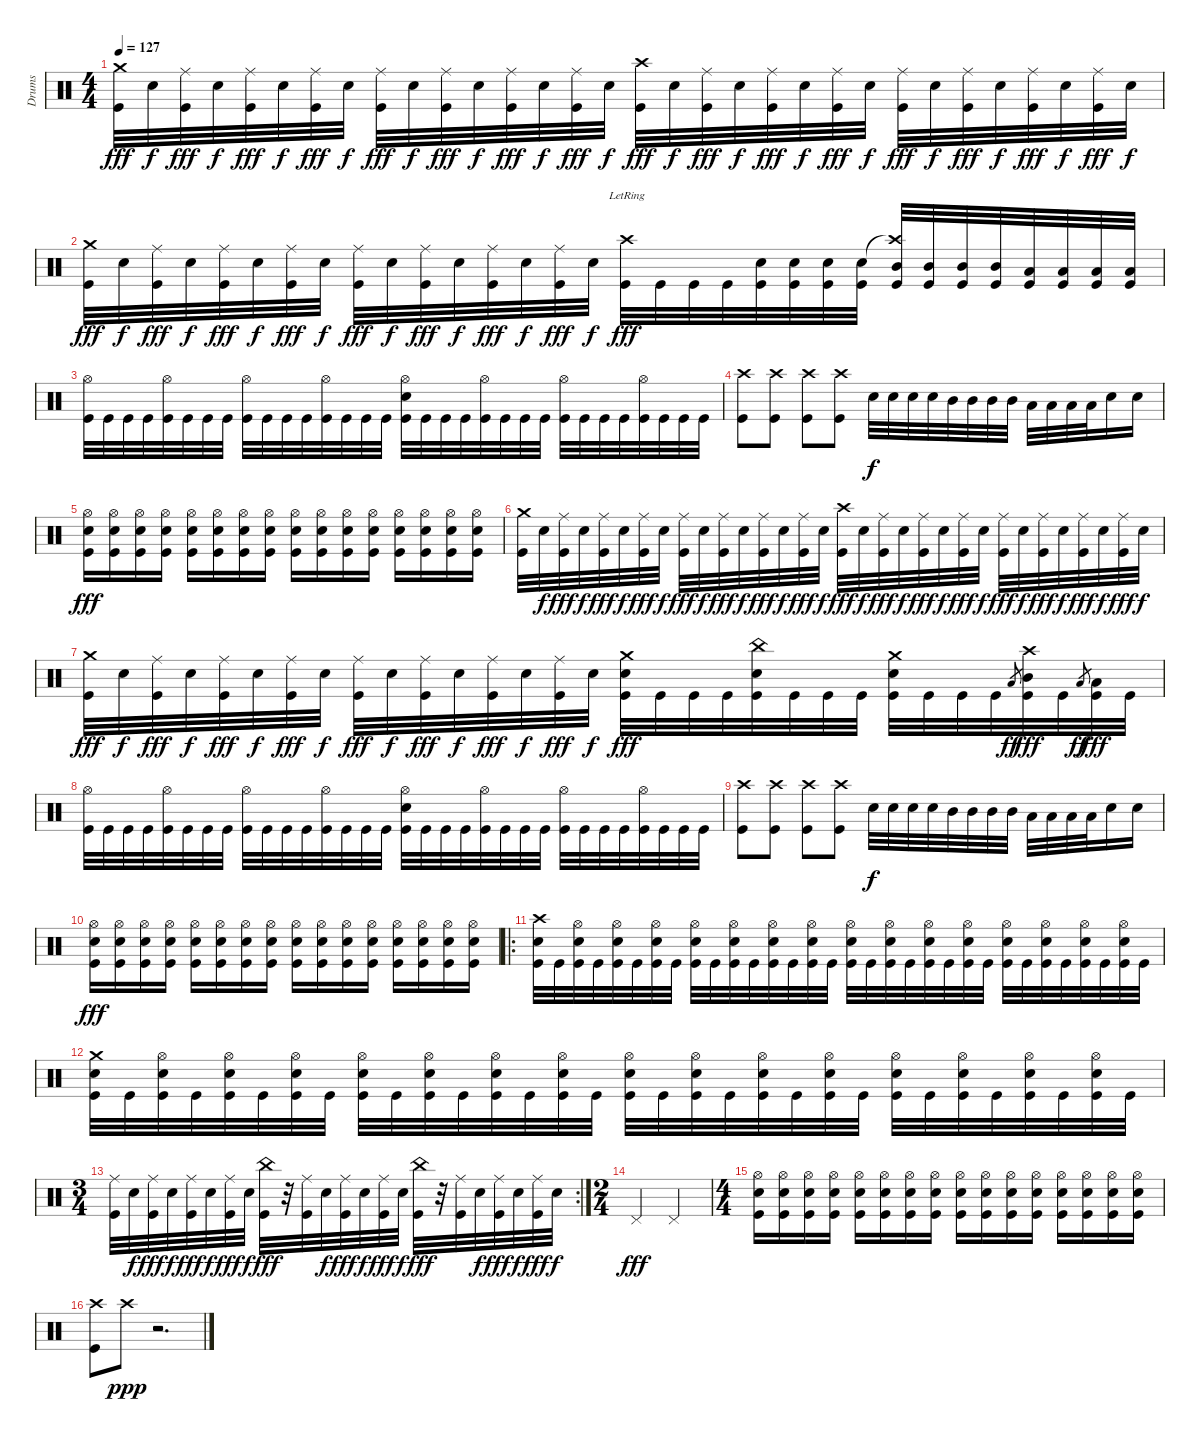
\track ("Drums" "Drums") {instrument percussion}
\staff {score}
\articulation defaults
\ts (4 4)
\tempo 127
\clef neutral
\ks c
("Crash medium (hit)" "Kick (hit)").32{dy fff} "Electric Snare (hit)".32{dy f} ("Ride (middle)" "Kick (hit)").32{dy fff} "Electric Snare (hit)".32{dy f} ("Ride (middle)" "Kick (hit)").32{dy fff} "Electric Snare (hit)".32{dy f} ("Ride (middle)" "Kick (hit)").32{dy fff} "Electric Snare (hit)".32{dy f} ("Ride (middle)" "Kick (hit)").32{dy fff} "Electric Snare (hit)".32{dy f} ("Ride (middle)" "Kick (hit)").32{dy fff} "Electric Snare (hit)".32{dy f} ("Ride (middle)" "Kick (hit)").32{dy fff} "Electric Snare (hit)".32{dy f} ("Ride (middle)" "Kick (hit)").32{dy fff} "Electric Snare (hit)".32{dy f} ("Crash high (hit)" "Kick (hit)").32{dy fff} "Electric Snare (hit)".32{dy f} ("Ride (middle)" "Kick (hit)").32{dy fff} "Electric Snare (hit)".32{dy f} ("Ride (middle)" "Kick (hit)").32{dy fff} "Electric Snare (hit)".32{dy f} ("Ride (middle)" "Kick (hit)").32{dy fff} "Electric Snare (hit)".32{dy f} ("Ride (middle)" "Kick (hit)").32{dy fff} "Electric Snare (hit)".32{dy f} ("Ride (middle)" "Kick (hit)").32{dy fff} "Electric Snare (hit)".32{dy f} ("Ride (middle)" "Kick (hit)").32{dy fff} "Electric Snare (hit)".32{dy f} ("Ride (middle)" "Kick (hit)").32{dy fff} "Electric Snare (hit)".32{dy f} |
("Crash medium (hit)" "Kick (hit)").32{dy fff} "Electric Snare (hit)".32{dy f} ("Ride (middle)" "Kick (hit)").32{dy fff} "Electric Snare (hit)".32{dy f} ("Ride (middle)" "Kick (hit)").32{dy fff} "Electric Snare (hit)".32{dy f} ("Ride (middle)" "Kick (hit)").32{dy fff} "Electric Snare (hit)".32{dy f} ("Ride (middle)" "Kick (hit)").32{dy fff} "Electric Snare (hit)".32{dy f} ("Ride (middle)" "Kick (hit)").32{dy fff} "Electric Snare (hit)".32{dy f} ("Ride (middle)" "Kick (hit)").32{dy fff} "Electric Snare (hit)".32{dy f} ("Ride (middle)" "Kick (hit)").32{dy fff} "Electric Snare (hit)".32{dy f} ("Crash high (hit)"{lr} "Kick (hit)").32{dy fff} "Kick (hit)".32 "Kick (hit)".32 "Kick (hit)".32 ("Electric Snare (hit)" "Kick (hit)").32 ("Electric Snare (hit)" "Kick (hit)").32 ("Electric Snare (hit)" "Kick (hit)").32 ("Electric Snare (hit)" "Kick (hit)").32 ("Crash high (hit)"{t} "Mid Tom (hit)" "Kick (hit)").32 ("Mid Tom (hit)" "Kick (hit)").32 ("Mid Tom (hit)" "Kick (hit)").32 ("Mid Tom (hit)" "Kick (hit)").32 ("Low Tom (hit)" "Kick (hit)").32 ("Low Tom (hit)" "Kick (hit)").32 ("Low Tom (hit)" "Kick (hit)").32 ("Low Tom (hit)" "Kick (hit)").32 |
("Hi-Hat (open)" "Kick (hit)").32 "Kick (hit)".32 "Kick (hit)".32 "Kick (hit)".32 ("Hi-Hat (open)" "Kick (hit)").32 "Kick (hit)".32 "Kick (hit)".32 "Kick (hit)".32 ("Hi-Hat (open)" "Kick (hit)").32 "Kick (hit)".32 "Kick (hit)".32 "Kick (hit)".32 ("Hi-Hat (open)" "Kick (hit)").32 "Kick (hit)".32 "Kick (hit)".32 "Kick (hit)".32 ("Hi-Hat (open)" "Electric Snare (hit)" "Kick (hit)").32 "Kick (hit)".32 "Kick (hit)".32 "Kick (hit)".32 ("Hi-Hat (open)" "Kick (hit)").32 "Kick (hit)".32 "Kick (hit)".32 "Kick (hit)".32 ("Hi-Hat (open)" "Kick (hit)").32 "Kick (hit)".32 "Kick (hit)".32 "Kick (hit)".32 ("Hi-Hat (open)" "Kick (hit)").32 "Kick (hit)".32 "Kick (hit)".32 "Kick (hit)".32 |
("Crash high (hit)" "Kick (hit)").8 ("Crash high (hit)" "Kick (hit)").8 ("Crash high (hit)" "Kick (hit)").8 ("Crash high (hit)" "Kick (hit)").8 "Electric Snare (hit)".32{dy f} "Electric Snare (hit)".32 "Electric Snare (hit)".32 "Electric Snare (hit)".32 "Mid Tom (hit)".32 "Mid Tom (hit)".32 "Mid Tom (hit)".32 "Mid Tom (hit)".32 "Low Tom (hit)".32 "Low Tom (hit)".32 "Low Tom (hit)".32 "Low Tom (hit)".32 "Electric Snare (hit)".16 "Electric Snare (hit)".16 |
("Hi-Hat (open)" "Electric Snare (hit)" "Kick (hit)").16{dy fff} ("Hi-Hat (open)" "Electric Snare (hit)" "Kick (hit)").16 ("Hi-Hat (open)" "Electric Snare (hit)" "Kick (hit)").16 ("Hi-Hat (open)" "Electric Snare (hit)" "Kick (hit)").16 ("Hi-Hat (open)" "Electric Snare (hit)" "Kick (hit)").16 ("Hi-Hat (open)" "Electric Snare (hit)" "Kick (hit)").16 ("Hi-Hat (open)" "Electric Snare (hit)" "Kick (hit)").16 ("Hi-Hat (open)" "Electric Snare (hit)" "Kick (hit)").16 ("Hi-Hat (open)" "Electric Snare (hit)" "Kick (hit)").16 ("Hi-Hat (open)" "Electric Snare (hit)" "Kick (hit)").16 ("Hi-Hat (open)" "Electric Snare (hit)" "Kick (hit)").16 ("Hi-Hat (open)" "Electric Snare (hit)" "Kick (hit)").16 ("Hi-Hat (open)" "Electric Snare (hit)" "Kick (hit)").16 ("Hi-Hat (open)" "Electric Snare (hit)" "Kick (hit)").16 ("Hi-Hat (open)" "Electric Snare (hit)" "Kick (hit)").16 ("Hi-Hat (open)" "Electric Snare (hit)" "Kick (hit)").16 |
("Crash medium (hit)" "Kick (hit)").32 "Electric Snare (hit)".32{dy f} ("Ride (middle)" "Kick (hit)").32{dy fff} "Electric Snare (hit)".32{dy f} ("Ride (middle)" "Kick (hit)").32{dy fff} "Electric Snare (hit)".32{dy f} ("Ride (middle)" "Kick (hit)").32{dy fff} "Electric Snare (hit)".32{dy f} ("Ride (middle)" "Kick (hit)").32{dy fff} "Electric Snare (hit)".32{dy f} ("Ride (middle)" "Kick (hit)").32{dy fff} "Electric Snare (hit)".32{dy f} ("Ride (middle)" "Kick (hit)").32{dy fff} "Electric Snare (hit)".32{dy f} ("Ride (middle)" "Kick (hit)").32{dy fff} "Electric Snare (hit)".32{dy f} ("Crash high (hit)" "Kick (hit)").32{dy fff} "Electric Snare (hit)".32{dy f} ("Ride (middle)" "Kick (hit)").32{dy fff} "Electric Snare (hit)".32{dy f} ("Ride (middle)" "Kick (hit)").32{dy fff} "Electric Snare (hit)".32{dy f} ("Ride (middle)" "Kick (hit)").32{dy fff} "Electric Snare (hit)".32{dy f} ("Ride (middle)" "Kick (hit)").32{dy fff} "Electric Snare (hit)".32{dy f} ("Ride (middle)" "Kick (hit)").32{dy fff} "Electric Snare (hit)".32{dy f} ("Ride (middle)" "Kick (hit)").32{dy fff} "Electric Snare (hit)".32{dy f} ("Ride (middle)" "Kick (hit)").32{dy fff} "Electric Snare (hit)".32{dy f} |
("Crash medium (hit)" "Kick (hit)").32{dy fff} "Electric Snare (hit)".32{dy f} ("Ride (middle)" "Kick (hit)").32{dy fff} "Electric Snare (hit)".32{dy f} ("Ride (middle)" "Kick (hit)").32{dy fff} "Electric Snare (hit)".32{dy f} ("Ride (middle)" "Kick (hit)").32{dy fff} "Electric Snare (hit)".32{dy f} ("Ride (middle)" "Kick (hit)").32{dy fff} "Electric Snare (hit)".32{dy f} ("Ride (middle)" "Kick (hit)").32{dy fff} "Electric Snare (hit)".32{dy f} ("Ride (middle)" "Kick (hit)").32{dy fff} "Electric Snare (hit)".32{dy f} ("Ride (middle)" "Kick (hit)").32{dy fff} "Electric Snare (hit)".32{dy f} ("Crash medium (hit)" "Electric Snare (hit)" "Kick (hit)").32{dy fff} "Kick (hit)".32 "Kick (hit)".32 "Kick (hit)".32 ("China (hit)" "Electric Snare (hit)" "Kick (hit)").32 "Kick (hit)".32 "Kick (hit)".32 "Kick (hit)".32 ("Crash medium (hit)" "Electric Snare (hit)" "Kick (hit)").32 "Kick (hit)".32 "Kick (hit)".32 "Kick (hit)".32 "Low Tom (hit)".8{gr dy ff} ("Crash high (hit)" "Mid Tom (hit)" "Kick (hit)").32{dy fff} "Kick (hit)".32 "Low Tom (hit)".8{gr dy ff} ("Low Tom (hit)" "Kick (hit)").32{dy fff} "Kick (hit)".32 |
("Hi-Hat (open)" "Kick (hit)").32 "Kick (hit)".32 "Kick (hit)".32 "Kick (hit)".32 ("Hi-Hat (open)" "Kick (hit)").32 "Kick (hit)".32 "Kick (hit)".32 "Kick (hit)".32 ("Hi-Hat (open)" "Kick (hit)").32 "Kick (hit)".32 "Kick (hit)".32 "Kick (hit)".32 ("Hi-Hat (open)" "Kick (hit)").32 "Kick (hit)".32 "Kick (hit)".32 "Kick (hit)".32 ("Hi-Hat (open)" "Electric Snare (hit)" "Kick (hit)").32 "Kick (hit)".32 "Kick (hit)".32 "Kick (hit)".32 ("Hi-Hat (open)" "Kick (hit)").32 "Kick (hit)".32 "Kick (hit)".32 "Kick (hit)".32 ("Hi-Hat (open)" "Kick (hit)").32 "Kick (hit)".32 "Kick (hit)".32 "Kick (hit)".32 ("Hi-Hat (open)" "Kick (hit)").32 "Kick (hit)".32 "Kick (hit)".32 "Kick (hit)".32 |
("Crash high (hit)" "Kick (hit)").8 ("Crash high (hit)" "Kick (hit)").8 ("Crash high (hit)" "Kick (hit)").8 ("Crash high (hit)" "Kick (hit)").8 "Electric Snare (hit)".32{dy f} "Electric Snare (hit)".32 "Electric Snare (hit)".32 "Electric Snare (hit)".32 "Mid Tom (hit)".32 "Mid Tom (hit)".32 "Mid Tom (hit)".32 "Mid Tom (hit)".32 "Low Tom (hit)".32 "Low Tom (hit)".32 "Low Tom (hit)".32 "Low Tom (hit)".32 "Electric Snare (hit)".16 "Electric Snare (hit)".16 |
("Hi-Hat (open)" "Electric Snare (hit)" "Kick (hit)").16{dy fff} ("Hi-Hat (open)" "Electric Snare (hit)" "Kick (hit)").16 ("Hi-Hat (open)" "Electric Snare (hit)" "Kick (hit)").16 ("Hi-Hat (open)" "Electric Snare (hit)" "Kick (hit)").16 ("Hi-Hat (open)" "Electric Snare (hit)" "Kick (hit)").16 ("Hi-Hat (open)" "Electric Snare (hit)" "Kick (hit)").16 ("Hi-Hat (open)" "Electric Snare (hit)" "Kick (hit)").16 ("Hi-Hat (open)" "Electric Snare (hit)" "Kick (hit)").16 ("Hi-Hat (open)" "Electric Snare (hit)" "Kick (hit)").16 ("Hi-Hat (open)" "Electric Snare (hit)" "Kick (hit)").16 ("Hi-Hat (open)" "Electric Snare (hit)" "Kick (hit)").16 ("Hi-Hat (open)" "Electric Snare (hit)" "Kick (hit)").16 ("Hi-Hat (open)" "Electric Snare (hit)" "Kick (hit)").16 ("Hi-Hat (open)" "Electric Snare (hit)" "Kick (hit)").16 ("Hi-Hat (open)" "Electric Snare (hit)" "Kick (hit)").16 ("Hi-Hat (open)" "Electric Snare (hit)" "Kick (hit)").16 |
\ro
("Crash high (hit)" "Electric Snare (hit)" "Kick (hit)").32 "Kick (hit)".32 ("Hi-Hat (open)" "Electric Snare (hit)" "Kick (hit)").32 "Kick (hit)".32 ("Hi-Hat (open)" "Electric Snare (hit)" "Kick (hit)").32 "Kick (hit)".32 ("Hi-Hat (open)" "Electric Snare (hit)" "Kick (hit)").32 "Kick (hit)".32 ("Hi-Hat (open)" "Electric Snare (hit)" "Kick (hit)").32 "Kick (hit)".32 ("Hi-Hat (open)" "Electric Snare (hit)" "Kick (hit)").32 "Kick (hit)".32 ("Hi-Hat (open)" "Electric Snare (hit)" "Kick (hit)").32 "Kick (hit)".32 ("Hi-Hat (open)" "Electric Snare (hit)" "Kick (hit)").32 "Kick (hit)".32 ("Hi-Hat (open)" "Electric Snare (hit)" "Kick (hit)").32 "Kick (hit)".32 ("Hi-Hat (open)" "Electric Snare (hit)" "Kick (hit)").32 "Kick (hit)".32 ("Hi-Hat (open)" "Electric Snare (hit)" "Kick (hit)").32 "Kick (hit)".32 ("Hi-Hat (open)" "Electric Snare (hit)" "Kick (hit)").32 "Kick (hit)".32 ("Hi-Hat (open)" "Electric Snare (hit)" "Kick (hit)").32 "Kick (hit)".32 ("Hi-Hat (open)" "Electric Snare (hit)" "Kick (hit)").32 "Kick (hit)".32 ("Hi-Hat (open)" "Electric Snare (hit)" "Kick (hit)").32 "Kick (hit)".32 ("Hi-Hat (open)" "Electric Snare (hit)" "Kick (hit)").32 "Kick (hit)".32 |
("Crash medium (hit)" "Electric Snare (hit)" "Kick (hit)").32 "Kick (hit)".32 ("Hi-Hat (open)" "Electric Snare (hit)" "Kick (hit)").32 "Kick (hit)".32 ("Hi-Hat (open)" "Electric Snare (hit)" "Kick (hit)").32 "Kick (hit)".32 ("Hi-Hat (open)" "Electric Snare (hit)" "Kick (hit)").32 "Kick (hit)".32 ("Hi-Hat (open)" "Electric Snare (hit)" "Kick (hit)").32 "Kick (hit)".32 ("Hi-Hat (open)" "Electric Snare (hit)" "Kick (hit)").32 "Kick (hit)".32 ("Hi-Hat (open)" "Electric Snare (hit)" "Kick (hit)").32 "Kick (hit)".32 ("Hi-Hat (open)" "Electric Snare (hit)" "Kick (hit)").32 "Kick (hit)".32 ("Hi-Hat (open)" "Electric Snare (hit)" "Kick (hit)").32 "Kick (hit)".32 ("Hi-Hat (open)" "Electric Snare (hit)" "Kick (hit)").32 "Kick (hit)".32 ("Hi-Hat (open)" "Electric Snare (hit)" "Kick (hit)").32 "Kick (hit)".32 ("Hi-Hat (open)" "Electric Snare (hit)" "Kick (hit)").32 "Kick (hit)".32 ("Hi-Hat (open)" "Electric Snare (hit)" "Kick (hit)").32 "Kick (hit)".32 ("Hi-Hat (open)" "Electric Snare (hit)" "Kick (hit)").32 "Kick (hit)".32 ("Hi-Hat (open)" "Electric Snare (hit)" "Kick (hit)").32 "Kick (hit)".32 ("Hi-Hat (open)" "Electric Snare (hit)" "Kick (hit)").32 "Kick (hit)".32 |
\rc 2
\ts (3 4)
("Ride (middle)" "Kick (hit)").32 "Electric Snare (hit)".32{dy f} ("Ride (middle)" "Kick (hit)").32{dy fff} "Electric Snare (hit)".32{dy f} ("Ride (middle)" "Kick (hit)").32{dy fff} "Electric Snare (hit)".32{dy f} ("Ride (middle)" "Kick (hit)").32{dy fff} "Electric Snare (hit)".32{dy f} ("China (hit)" "Kick (hit)").32{dy fff} r.32 ("Ride (middle)" "Kick (hit)").32 "Electric Snare (hit)".32{dy f} ("Ride (middle)" "Kick (hit)").32{dy fff} "Electric Snare (hit)".32{dy f} ("Ride (middle)" "Kick (hit)").32{dy fff} "Electric Snare (hit)".32{dy f} ("China (hit)" "Kick (hit)").32{dy fff} r.32 ("Ride (middle)" "Kick (hit)").32 "Electric Snare (hit)".32{dy f} ("Ride (middle)" "Kick (hit)").32{dy fff} "Electric Snare (hit)".32{dy f} ("Ride (middle)" "Kick (hit)").32{dy fff} "Electric Snare (hit)".32{dy f} |
\ts (2 4)
"Pedal Hi-Hat (hit)".4{dy fff} "Pedal Hi-Hat (hit)".4 |
\ts (4 4)
("Hi-Hat (open)" "Electric Snare (hit)" "Kick (hit)").16 ("Hi-Hat (open)" "Electric Snare (hit)" "Kick (hit)").16 ("Hi-Hat (open)" "Electric Snare (hit)" "Kick (hit)").16 ("Hi-Hat (open)" "Electric Snare (hit)" "Kick (hit)").16 ("Hi-Hat (open)" "Electric Snare (hit)" "Kick (hit)").16 ("Hi-Hat (open)" "Electric Snare (hit)" "Kick (hit)").16 ("Hi-Hat (open)" "Electric Snare (hit)" "Kick (hit)").16 ("Hi-Hat (open)" "Electric Snare (hit)" "Kick (hit)").16 ("Hi-Hat (open)" "Electric Snare (hit)" "Kick (hit)").16 ("Hi-Hat (open)" "Electric Snare (hit)" "Kick (hit)").16 ("Hi-Hat (open)" "Electric Snare (hit)" "Kick (hit)").16 ("Hi-Hat (open)" "Electric Snare (hit)" "Kick (hit)").16 ("Hi-Hat (open)" "Electric Snare (hit)" "Kick (hit)").16 ("Hi-Hat (open)" "Electric Snare (hit)" "Kick (hit)").16 ("Hi-Hat (open)" "Electric Snare (hit)" "Kick (hit)").16 ("Hi-Hat (open)" "Electric Snare (hit)" "Kick (hit)").16 |
("Crash high (hit)" "Kick (hit)").8 "Crash high (hit)".8{dy ppp} r.2{d}
